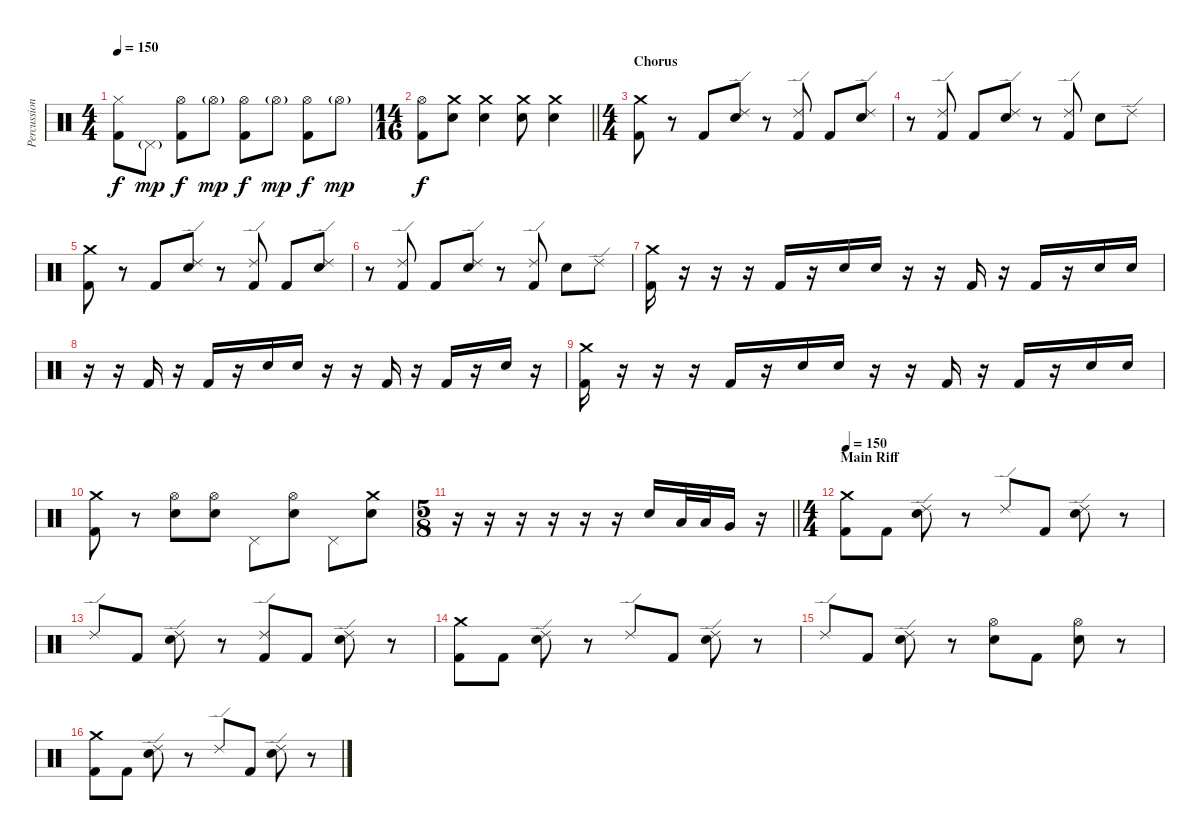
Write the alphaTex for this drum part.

\track ("Percussion" "Percussion") {instrument percussion}
\staff {score}
\articulation defaults
\ts (4 4)
\tempo 150
\clef neutral
\ks c
("Hi-Hat (closed)" "Kick (hit) 2").8{dy f} "Pedal Hi-Hat (hit)"{g}.8{dy mp} ("Hi-Hat (open)" "Kick (hit) 2").8{dy f} "Hi-Hat (open)"{g}.8{dy mp} ("Hi-Hat (open)" "Kick (hit) 2").8{dy f} "Hi-Hat (open)"{g}.8{dy mp} ("Hi-Hat (open)" "Kick (hit) 2").8{dy f} "Hi-Hat (open)"{g}.8{dy mp} |
\ts (14 16)
\barLineRight lightlight
("Hi-Hat (open)" "Kick (hit) 2").8{dy f} ("Crash medium (hit)" "Electric Snare (hit)").8 ("Crash medium (hit)" "Electric Snare (hit)").4 ("Crash medium (hit)" "Electric Snare (hit)").8 ("Crash medium (hit)" "Electric Snare (hit)").4 |
\ts (4 4)
\section ("" "Chorus")
("Crash medium (hit)" "Kick (hit) 2").8 r.8 "Kick (hit) 2".8 ("Ride (edge) 2" "Electric Snare (hit)").8 r.8 ("Ride (edge) 2" "Kick (hit) 2").8 "Kick (hit) 2".8 ("Ride (edge) 2" "Electric Snare (hit)").8 |
r.8 ("Ride (edge) 2" "Kick (hit) 2").8 "Kick (hit) 2".8 ("Ride (edge) 2" "Electric Snare (hit)").8 r.8 ("Ride (edge) 2" "Kick (hit) 2").8 "Electric Snare (hit)".8 "Ride (edge) 2".8 |
("Crash medium (hit)" "Kick (hit) 2").8 r.8 "Kick (hit) 2".8 ("Ride (edge) 2" "Electric Snare (hit)").8 r.8 ("Ride (edge) 2" "Kick (hit) 2").8 "Kick (hit) 2".8 ("Ride (edge) 2" "Electric Snare (hit)").8 |
r.8 ("Ride (edge) 2" "Kick (hit) 2").8 "Kick (hit) 2".8 ("Ride (edge) 2" "Electric Snare (hit)").8 r.8 ("Ride (edge) 2" "Kick (hit) 2").8 "Electric Snare (hit)".8 "Ride (edge) 2".8 |
("Crash medium (hit)" "Kick (hit) 2").16 r.16 r.16 r.16 "Kick (hit) 2".16 r.16 "Electric Snare (hit)".16 "Electric Snare (hit)".16 r.16 r.16 "Kick (hit) 2".16 r.16 "Kick (hit) 2".16 r.16 "Electric Snare (hit)".16 "Electric Snare (hit)".16 |
r.16 r.16 "Kick (hit) 2".16 r.16 "Kick (hit) 2".16 r.16 "Electric Snare (hit)".16 "Electric Snare (hit)".16 r.16 r.16 "Kick (hit) 2".16 r.16 "Kick (hit) 2".16 r.16 "Electric Snare (hit)".16 r.16 |
("Crash medium (hit)" "Kick (hit) 2").16 r.16 r.16 r.16 "Kick (hit) 2".16 r.16 "Electric Snare (hit)".16 "Electric Snare (hit)".16 r.16 r.16 "Kick (hit) 2".16 r.16 "Kick (hit) 2".16 r.16 "Electric Snare (hit)".16 "Electric Snare (hit)".16 |
("Crash medium (hit)" "Kick (hit) 2").8 r.8 ("Hi-Hat (open)" "Electric Snare (hit)").8 ("Hi-Hat (open)" "Electric Snare (hit)").8 "Pedal Hi-Hat (hit)".8 ("Hi-Hat (open)" "Electric Snare (hit)").8 "Pedal Hi-Hat (hit)".8 ("Crash medium (hit)" "Electric Snare (hit)").8 |
\ts (5 8)
\barLineRight lightlight
r.16 r.16 r.16 r.16 r.16 r.16 "Electric Snare (hit)".16 "Low Tom (hit)".32 "Low Tom (hit)".32 "Very Low Tom (hit)".16 r.16 |
\ts (4 4)
\section ("" "Main Riff")
\tempo 150
("Crash medium (hit)" "Kick (hit) 2").8 "Kick (hit) 2".8 ("Ride (edge) 2" "Electric Snare (hit)").8 r.8 "Ride (edge) 2".8 "Kick (hit) 2".8 ("Ride (edge) 2" "Electric Snare (hit)").8 r.8 |
"Ride (edge) 2".8 "Kick (hit) 2".8 ("Ride (edge) 2" "Electric Snare (hit)").8 r.8 ("Ride (edge) 2" "Kick (hit) 2").8 "Kick (hit) 2".8 ("Ride (edge) 2" "Electric Snare (hit)").8 r.8 |
("Crash medium (hit)" "Kick (hit) 2").8 "Kick (hit) 2".8 ("Ride (edge) 2" "Electric Snare (hit)").8 r.8 "Ride (edge) 2".8 "Kick (hit) 2".8 ("Ride (edge) 2" "Electric Snare (hit)").8 r.8 |
"Ride (edge) 2".8 "Kick (hit) 2".8 ("Ride (edge) 2" "Electric Snare (hit)").8 r.8 ("Hi-Hat (open)" "Electric Snare (hit)").8 "Kick (hit) 2".8 ("Hi-Hat (open)" "Electric Snare (hit)").8 r.8 |
("Crash medium (hit)" "Kick (hit) 2").8 "Kick (hit) 2".8 ("Ride (edge) 2" "Electric Snare (hit)").8 r.8 "Ride (edge) 2".8 "Kick (hit) 2".8 ("Ride (edge) 2" "Electric Snare (hit)").8 r.8
